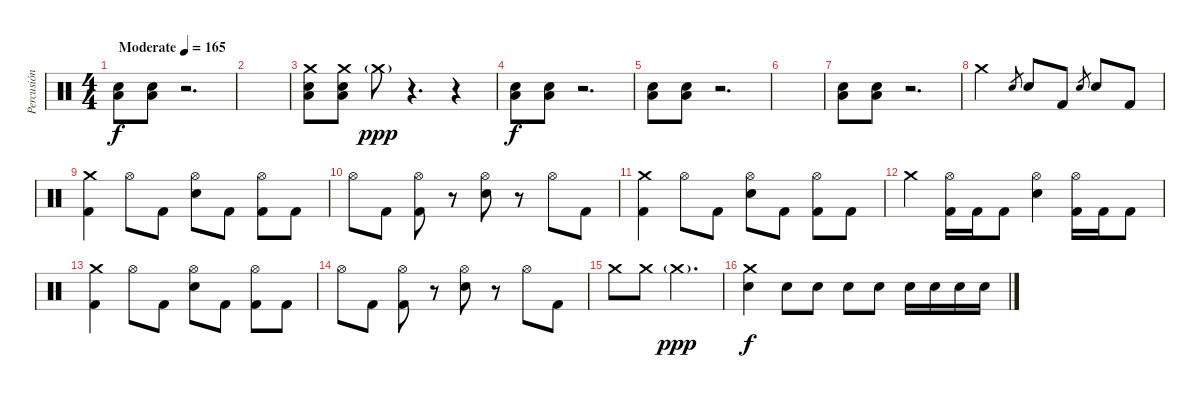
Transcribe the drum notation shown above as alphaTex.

\track ("Percusión" "Percusión") {instrument percussion}
\staff {score}
\articulation defaults
\ts (4 4)
\tempo (165 "Moderate")
\clef neutral
\ks c
("Low Tom (hit)" "Electric Snare (hit)").8{dy f} ("Low Tom (hit)" "Electric Snare (hit)").8 r.2{d} |
|
("Crash medium (hit)" "Low Tom (hit)" "Electric Snare (hit)").8 ("Crash medium (hit)" "Low Tom (hit)" "Electric Snare (hit)").8 "Crash medium (hit)"{g}.8{dy ppp} r.4{d} r.4 |
("Low Tom (hit)" "Electric Snare (hit)").8{dy f} ("Low Tom (hit)" "Electric Snare (hit)").8 r.2{d} |
("Low Tom (hit)" "Electric Snare (hit)").8 ("Low Tom (hit)" "Electric Snare (hit)").8 r.2{d} |
|
("Low Tom (hit)" "Electric Snare (hit)").8 ("Low Tom (hit)" "Electric Snare (hit)").8 r.2{d} |
"Crash medium (hit)".2 "Electric Snare (hit)".8{gr} "Electric Snare (hit)".8 "Kick (hit) 2".8 "Electric Snare (hit)".8{gr} "Electric Snare (hit)".8 "Kick (hit) 2".8 |
("Crash medium (hit)" "Kick (hit) 2").4 "Hi-Hat (open)".8 "Kick (hit) 2".8 ("Hi-Hat (open)" "Electric Snare (hit)").8 "Kick (hit) 2".8 ("Hi-Hat (open)" "Kick (hit) 2").8 "Kick (hit) 2".8 |
"Hi-Hat (open)".8 "Kick (hit) 2".8 ("Hi-Hat (open)" "Kick (hit) 2").8 r.8 ("Hi-Hat (open)" "Electric Snare (hit)").8 r.8 "Hi-Hat (open)".8 "Kick (hit) 2".8 |
("Crash medium (hit)" "Kick (hit) 2").4 "Hi-Hat (open)".8 "Kick (hit) 2".8 ("Hi-Hat (open)" "Electric Snare (hit)").8 "Kick (hit) 2".8 ("Hi-Hat (open)" "Kick (hit) 2").8 "Kick (hit) 2".8 |
"Crash medium (hit)".4 ("Hi-Hat (open)" "Kick (hit) 2").16 "Kick (hit) 2".16 "Kick (hit) 2".8 ("Hi-Hat (open)" "Electric Snare (hit)").4 ("Hi-Hat (open)" "Kick (hit) 2").16 "Kick (hit) 2".16 "Kick (hit) 2".8 |
("Crash medium (hit)" "Kick (hit) 2").4 "Hi-Hat (open)".8 "Kick (hit) 2".8 ("Hi-Hat (open)" "Electric Snare (hit)").8 "Kick (hit) 2".8 ("Hi-Hat (open)" "Kick (hit) 2").8 "Kick (hit) 2".8 |
"Hi-Hat (open)".8 "Kick (hit) 2".8 ("Hi-Hat (open)" "Kick (hit) 2").8 r.8 ("Hi-Hat (open)" "Electric Snare (hit)").8 r.8 "Hi-Hat (open)".8 "Kick (hit) 2".8 |
"Crash medium (hit)".8 "Crash medium (hit)".8 "Crash medium (hit)"{g}.2{d dy ppp} |
("Crash medium (hit)" "Electric Snare (hit)").4{dy f} "Electric Snare (hit)".8 "Electric Snare (hit)".8 "Electric Snare (hit)".8 "Electric Snare (hit)".8 "Electric Snare (hit)".16 "Electric Snare (hit)".16 "Electric Snare (hit)".16 "Electric Snare (hit)".16
